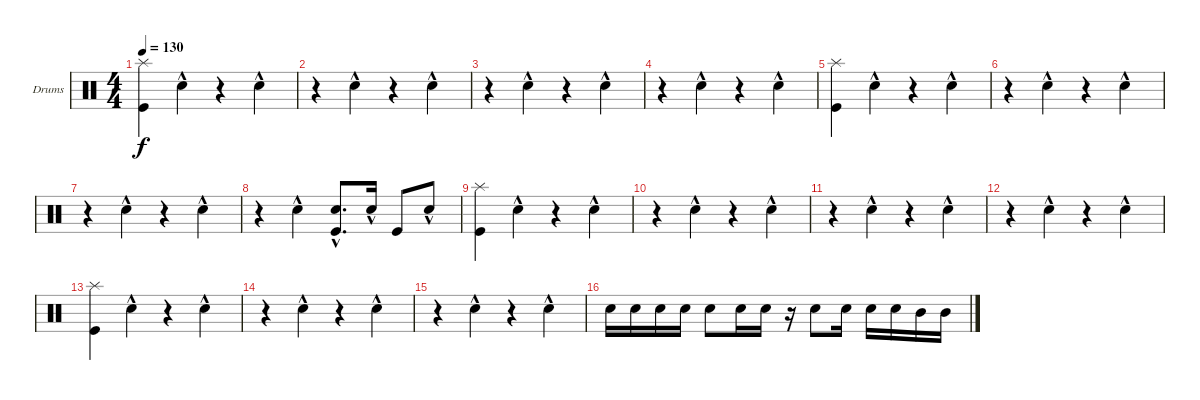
\defaultSystemsLayout 4
\bracketExtendMode groupsimilarinstruments
\firstSystemTrackNameOrientation horizontal
\otherSystemsTrackNameOrientation horizontal
\track ("Inazawa" "Drums") {instrument percussion}
\staff {score}
\articulation defaults
\ts (4 4)
\tempo 130
\clef neutral
\ks c
("Kick (hit)" "Splash (hit)").4{dy f} "Snare (hit) 2"{hac}.4 r.4 "Snare (hit) 2"{hac}.4 |
r.4 "Snare (hit) 2"{hac}.4 r.4 "Snare (hit) 2"{hac}.4 |
r.4 "Snare (hit) 2"{hac}.4 r.4 "Snare (hit) 2"{hac}.4 |
r.4 "Snare (hit) 2"{hac}.4 r.4 "Snare (hit) 2"{hac}.4 |
("Kick (hit)" "Splash (hit)").4 "Snare (hit) 2"{hac}.4 r.4 "Snare (hit) 2"{hac}.4 |
r.4 "Snare (hit) 2"{hac}.4 r.4 "Snare (hit) 2"{hac}.4 |
r.4 "Snare (hit) 2"{hac}.4 r.4 "Snare (hit) 2"{hac}.4 |
r.4 "Snare (hit) 2"{hac}.4 ("Snare (hit) 2"{hac} "Kick (hit)").8{d} "Snare (hit) 2"{hac}.16 "Kick (hit)".8 "Snare (hit) 2"{hac}.8 |
("Kick (hit)" "Splash (hit)").4 "Snare (hit) 2"{hac}.4 r.4 "Snare (hit) 2"{hac}.4 |
r.4 "Snare (hit) 2"{hac}.4 r.4 "Snare (hit) 2"{hac}.4 |
r.4 "Snare (hit) 2"{hac}.4 r.4 "Snare (hit) 2"{hac}.4 |
r.4 "Snare (hit) 2"{hac}.4 r.4 "Snare (hit) 2"{hac}.4 |
("Kick (hit)" "Splash (hit)").4 "Snare (hit) 2"{hac}.4 r.4 "Snare (hit) 2"{hac}.4 |
r.4 "Snare (hit) 2"{hac}.4 r.4 "Snare (hit) 2"{hac}.4 |
r.4 "Snare (hit) 2"{hac}.4 r.4 "Snare (hit) 2"{hac}.4 |
"Snare (hit) 2".16 "Snare (hit) 2".16 "Snare (hit) 2".16 "Snare (hit) 2".16 "Snare (hit) 2".8 "Snare (hit) 2".16 "Snare (hit) 2".16 r.16 "Snare (hit) 2".8 "Snare (hit) 2".16 "Snare (hit) 2".16 "Snare (hit) 2".16 "Mid Tom (hit)".16 "Mid Tom (hit)".16
